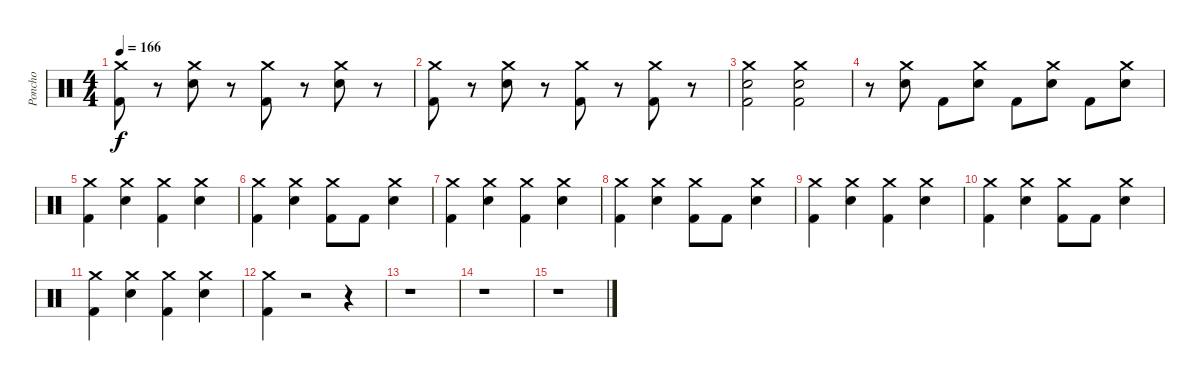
\track ("Poncho" "Poncho") {instrument percussion}
\staff {score}
\articulation defaults
\ts (4 4)
\tempo 166
\clef neutral
\ks c
("Crash medium (hit)" "Kick (hit) 2").8{dy f} r.8 ("Crash medium (hit)" "Electric Snare (hit)").8 r.8 ("Crash medium (hit)" "Kick (hit) 2").8 r.8 ("Crash medium (hit)" "Electric Snare (hit)").8 r.8 |
("Crash medium (hit)" "Kick (hit) 2").8 r.8 ("Crash medium (hit)" "Electric Snare (hit)").8 r.8 ("Crash medium (hit)" "Kick (hit) 2").8 r.8 ("Crash medium (hit)" "Kick (hit) 2").8 r.8 |
("Crash medium (hit)" "Electric Snare (hit)" "Kick (hit) 2").2 ("Crash medium (hit)" "Electric Snare (hit)" "Kick (hit) 2").2 |
r.8 ("Crash medium (hit)" "Electric Snare (hit)").8 "Kick (hit) 2".8 ("Crash medium (hit)" "Electric Snare (hit)").8 "Kick (hit) 2".8 ("Crash medium (hit)" "Electric Snare (hit)").8 "Kick (hit) 2".8 ("Crash medium (hit)" "Electric Snare (hit)").8 |
("Crash medium (hit)" "Kick (hit) 2").4 ("Crash medium (hit)" "Electric Snare (hit)").4 ("Crash medium (hit)" "Kick (hit) 2").4 ("Crash medium (hit)" "Electric Snare (hit)").4 |
("Crash medium (hit)" "Kick (hit) 2").4 ("Crash medium (hit)" "Electric Snare (hit)").4 ("Crash medium (hit)" "Kick (hit) 2").8 "Kick (hit) 2".8 ("Crash medium (hit)" "Electric Snare (hit)").4 |
("Crash medium (hit)" "Kick (hit) 2").4 ("Crash medium (hit)" "Electric Snare (hit)").4 ("Crash medium (hit)" "Kick (hit) 2").4 ("Crash medium (hit)" "Electric Snare (hit)").4 |
("Crash medium (hit)" "Kick (hit) 2").4 ("Crash medium (hit)" "Electric Snare (hit)").4 ("Crash medium (hit)" "Kick (hit) 2").8 "Kick (hit) 2".8 ("Crash medium (hit)" "Electric Snare (hit)").4 |
("Crash medium (hit)" "Kick (hit) 2").4 ("Crash medium (hit)" "Electric Snare (hit)").4 ("Crash medium (hit)" "Kick (hit) 2").4 ("Crash medium (hit)" "Electric Snare (hit)").4 |
("Crash medium (hit)" "Kick (hit) 2").4 ("Crash medium (hit)" "Electric Snare (hit)").4 ("Crash medium (hit)" "Kick (hit) 2").8 "Kick (hit) 2".8 ("Crash medium (hit)" "Electric Snare (hit)").4 |
("Crash medium (hit)" "Kick (hit) 2").4 ("Crash medium (hit)" "Electric Snare (hit)").4 ("Crash medium (hit)" "Kick (hit) 2").4 ("Crash medium (hit)" "Electric Snare (hit)").4 |
("Crash medium (hit)" "Kick (hit) 2").4 r.2 r.4 |
r.1 |
r.1 |
r.1
